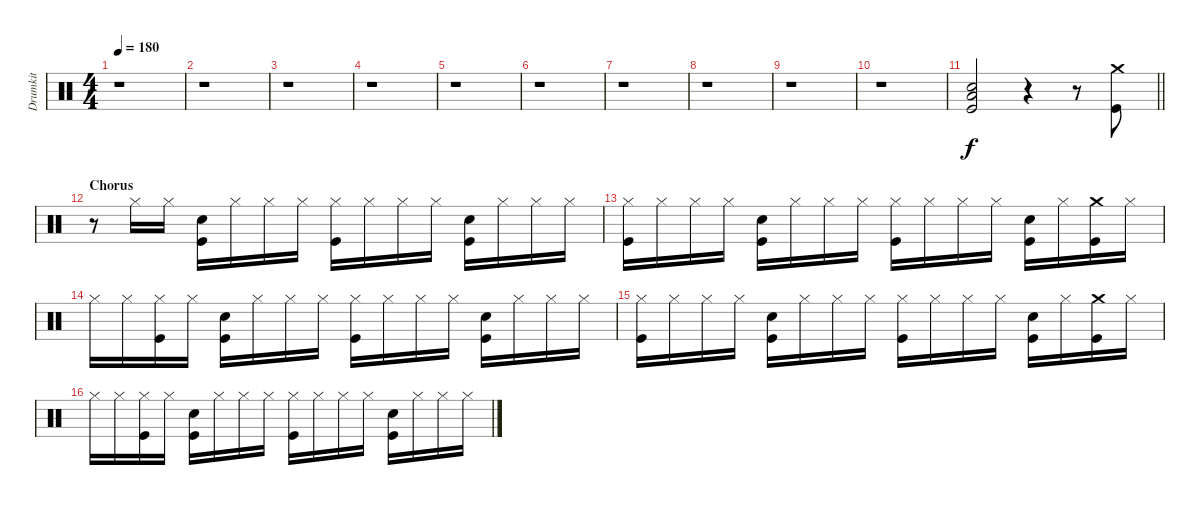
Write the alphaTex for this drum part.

\track ("Drumkit" "Drumkit") {instrument percussion}
\staff {score}
\articulation defaults
\ts (4 4)
\tempo 180
\clef neutral
\ks c
r.1{dy f} |
r.1 |
r.1 |
r.1 |
r.1 |
r.1 |
r.1 |
r.1 |
r.1 |
r.1 |
\barLineRight lightlight
("Low Floor Tom (hit)" "Snare (hit) 2" "Kick (hit)").2 r.4 r.8 ("Crash medium (hit)" "Kick (hit)").8 |
\section ("" "Chorus")
r.8 "Hi-Hat (closed)".16 "Hi-Hat (closed)".16 ("Snare (hit) 2" "Kick (hit)").16 "Hi-Hat (closed)".16 "Hi-Hat (closed)".16 "Hi-Hat (closed)".16 ("Hi-Hat (closed)" "Kick (hit)").16 "Hi-Hat (closed)".16 "Hi-Hat (closed)".16 "Hi-Hat (closed)".16 ("Snare (hit) 2" "Kick (hit)").16 "Hi-Hat (closed)".16 "Hi-Hat (closed)".16 "Hi-Hat (closed)".16 |
("Hi-Hat (closed)" "Kick (hit)").16 "Hi-Hat (closed)".16 "Hi-Hat (closed)".16 "Hi-Hat (closed)".16 ("Snare (hit) 2" "Kick (hit)").16 "Hi-Hat (closed)".16 "Hi-Hat (closed)".16 "Hi-Hat (closed)".16 ("Hi-Hat (closed)" "Kick (hit)").16 "Hi-Hat (closed)".16 "Hi-Hat (closed)".16 "Hi-Hat (closed)".16 ("Snare (hit) 2" "Kick (hit)").16 "Hi-Hat (closed)".16 ("Crash medium (hit)" "Kick (hit)").16 "Hi-Hat (closed)".16 |
"Hi-Hat (closed)".16 "Hi-Hat (closed)".16 ("Hi-Hat (closed)" "Kick (hit)").16 "Hi-Hat (closed)".16 ("Snare (hit) 2" "Kick (hit)").16 "Hi-Hat (closed)".16 "Hi-Hat (closed)".16 "Hi-Hat (closed)".16 ("Hi-Hat (closed)" "Kick (hit)").16 "Hi-Hat (closed)".16 "Hi-Hat (closed)".16 "Hi-Hat (closed)".16 ("Snare (hit) 2" "Kick (hit)").16 "Hi-Hat (closed)".16 "Hi-Hat (closed)".16 "Hi-Hat (closed)".16 |
("Hi-Hat (closed)" "Kick (hit)").16 "Hi-Hat (closed)".16 "Hi-Hat (closed)".16 "Hi-Hat (closed)".16 ("Snare (hit) 2" "Kick (hit)").16 "Hi-Hat (closed)".16 "Hi-Hat (closed)".16 "Hi-Hat (closed)".16 ("Hi-Hat (closed)" "Kick (hit)").16 "Hi-Hat (closed)".16 "Hi-Hat (closed)".16 "Hi-Hat (closed)".16 ("Snare (hit) 2" "Kick (hit)").16 "Hi-Hat (closed)".16 ("Crash medium (hit)" "Kick (hit)").16 "Hi-Hat (closed)".16 |
"Hi-Hat (closed)".16 "Hi-Hat (closed)".16 ("Hi-Hat (closed)" "Kick (hit)").16 "Hi-Hat (closed)".16 ("Snare (hit) 2" "Kick (hit)").16 "Hi-Hat (closed)".16 "Hi-Hat (closed)".16 "Hi-Hat (closed)".16 ("Hi-Hat (closed)" "Kick (hit)").16 "Hi-Hat (closed)".16 "Hi-Hat (closed)".16 "Hi-Hat (closed)".16 ("Snare (hit) 2" "Kick (hit)").16 "Hi-Hat (closed)".16 "Hi-Hat (closed)".16 "Hi-Hat (closed)".16
